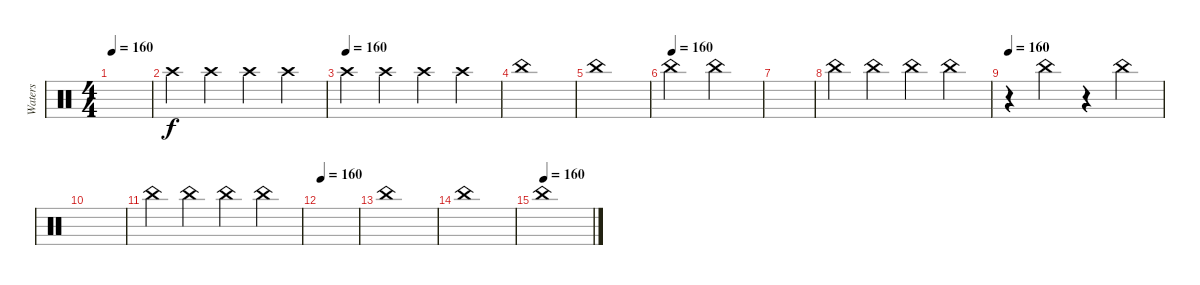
\track ("Waters " "Waters ") {instrument percussion}
\staff {score}
\articulation defaults
\ts (4 4)
\tempo 160
\clef neutral
\ks c
|
"Crash high (hit)".4 "Crash high (hit)".4 "Crash high (hit)".4 "Crash high (hit)".4 |
\tempo (160)
"Crash high (hit)".4 "Crash high (hit)".4 "Crash high (hit)".4 "Crash high (hit)".4 |
"China (hit)".1 |
"China (hit)".1 |
\tempo (160)
"China (hit)".2 "China (hit)".2 |
|
"China (hit)".4 "China (hit)".4 "China (hit)".4 "China (hit)".4 |
\tempo 160
r.4 "China (hit)".4 r.4 "China (hit)".4 |
|
"China (hit)".4 "China (hit)".4 "China (hit)".4 "China (hit)".4 |
\tempo 160
|
"China (hit)".1 |
"China (hit)".1 |
\tempo (160)
"China (hit)".1
